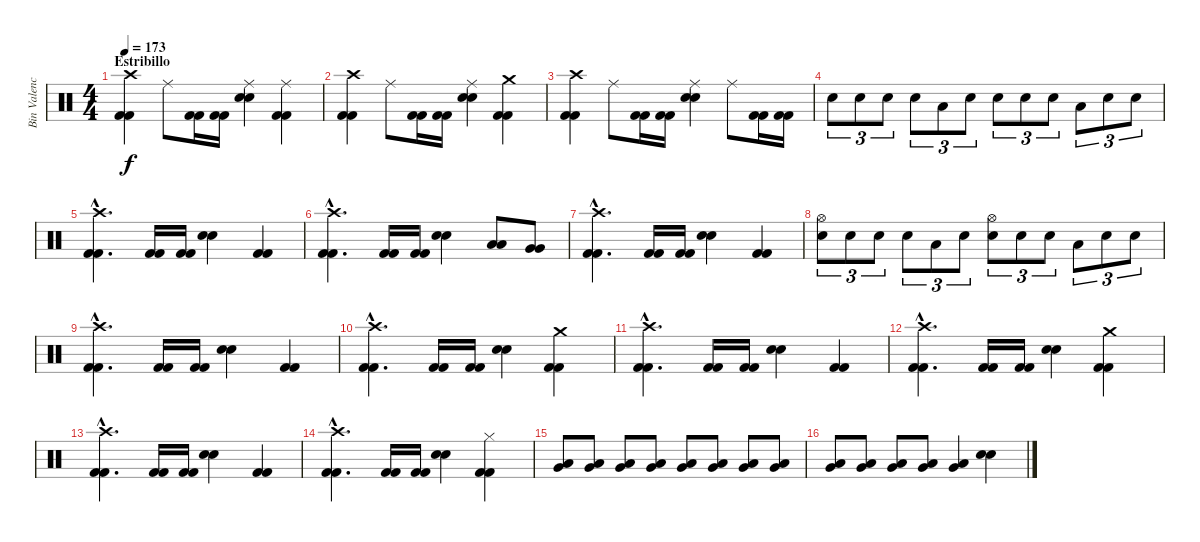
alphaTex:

\track ("Bin Valencia (Bateria)" "Bin Valenc") {instrument percussion}
\staff {score}
\articulation defaults
\ts (4 4)
\section ("" "Estribillo")
\tempo 173
\clef neutral
\ks c
("Crash high (hit)" "Kick (hit) 2" "Kick (hit) 2").4{dy f} "Ride (middle)".8 ("Kick (hit) 2" "Kick (hit) 2").16 ("Kick (hit) 2" "Kick (hit) 2").16 ("Ride (middle)" "Snare (hit) 2" "Snare (hit) 2").4 ("Ride (middle)" "Kick (hit) 2" "Kick (hit) 2").4 |
("Crash high (hit)" "Kick (hit) 2" "Kick (hit) 2").4 "Ride (middle)".8 ("Kick (hit) 2" "Kick (hit) 2").16 ("Kick (hit) 2" "Kick (hit) 2").16 ("Ride (middle)" "Snare (hit) 2" "Snare (hit) 2").4 ("Crash medium (hit)" "Kick (hit) 2" "Kick (hit) 2").4 |
("Crash high (hit)" "Kick (hit) 2" "Kick (hit) 2").4 "Ride (middle)".8 ("Kick (hit) 2" "Kick (hit) 2").16 ("Kick (hit) 2" "Kick (hit) 2").16 ("Ride (middle)" "Snare (hit) 2" "Snare (hit) 2").4 "Ride (middle)".8 ("Kick (hit) 2" "Kick (hit) 2").16 ("Kick (hit) 2" "Kick (hit) 2").16 |
"Snare (hit) 2".8{tu (3 2)} "Snare (hit) 2".8{tu (3 2)} "Snare (hit) 2".8{tu (3 2)} "Snare (hit) 2".8{tu (3 2)} "Low Tom (hit)".8{tu (3 2)} "Snare (hit) 2".8{tu (3 2)} "Snare (hit) 2".8{tu (3 2)} "Snare (hit) 2".8{tu (3 2)} "Snare (hit) 2".8{tu (3 2)} "Low Tom (hit)".8{tu (3 2)} "Snare (hit) 2".8{tu (3 2)} "Snare (hit) 2".8{tu (3 2)} |
("Crash high (hit)"{hac} "Kick (hit) 2"{hac} "Kick (hit) 2"{hac}).4{d} ("Kick (hit) 2" "Kick (hit) 2").16 ("Kick (hit) 2" "Kick (hit) 2").16 ("Snare (hit) 2" "Snare (hit) 2").4 ("Kick (hit) 2" "Kick (hit) 2").4 |
("Crash high (hit)"{hac} "Kick (hit) 2"{hac} "Kick (hit) 2"{hac}).4{d} ("Kick (hit) 2" "Kick (hit) 2").16 ("Kick (hit) 2" "Kick (hit) 2").16 ("Snare (hit) 2" "Snare (hit) 2").4 ("Low Tom (hit)" "Low Tom (hit)").8 ("Very Low Tom (hit)" "Very Low Tom (hit)").8 |
("Crash high (hit)"{hac} "Kick (hit) 2"{hac} "Kick (hit) 2"{hac}).4{d} ("Kick (hit) 2" "Kick (hit) 2").16 ("Kick (hit) 2" "Kick (hit) 2").16 ("Snare (hit) 2" "Snare (hit) 2").4 ("Kick (hit) 2" "Kick (hit) 2").4 |
("Hi-Hat (open)" "Snare (hit) 2").8{tu (3 2)} "Snare (hit) 2".8{tu (3 2)} "Snare (hit) 2".8{tu (3 2)} "Snare (hit) 2".8{tu (3 2)} "Low Tom (hit)".8{tu (3 2)} "Snare (hit) 2".8{tu (3 2)} ("Hi-Hat (open)" "Snare (hit) 2").8{tu (3 2)} "Snare (hit) 2".8{tu (3 2)} "Snare (hit) 2".8{tu (3 2)} "Low Tom (hit)".8{tu (3 2)} "Snare (hit) 2".8{tu (3 2)} "Snare (hit) 2".8{tu (3 2)} |
("Crash high (hit)"{hac} "Kick (hit) 2"{hac} "Kick (hit) 2"{hac}).4{d} ("Kick (hit) 2" "Kick (hit) 2").16 ("Kick (hit) 2" "Kick (hit) 2").16 ("Snare (hit) 2" "Snare (hit) 2").4 ("Kick (hit) 2" "Kick (hit) 2").4 |
("Crash high (hit)"{hac} "Kick (hit) 2"{hac} "Kick (hit) 2"{hac}).4{d} ("Kick (hit) 2" "Kick (hit) 2").16 ("Kick (hit) 2" "Kick (hit) 2").16 ("Snare (hit) 2" "Snare (hit) 2").4 ("Crash medium (hit)" "Kick (hit) 2" "Kick (hit) 2").4 |
("Crash high (hit)"{hac} "Kick (hit) 2"{hac} "Kick (hit) 2"{hac}).4{d} ("Kick (hit) 2" "Kick (hit) 2").16 ("Kick (hit) 2" "Kick (hit) 2").16 ("Snare (hit) 2" "Snare (hit) 2").4 ("Kick (hit) 2" "Kick (hit) 2").4 |
("Crash high (hit)"{hac} "Kick (hit) 2"{hac} "Kick (hit) 2"{hac}).4{d} ("Kick (hit) 2" "Kick (hit) 2").16 ("Kick (hit) 2" "Kick (hit) 2").16 ("Snare (hit) 2" "Snare (hit) 2").4 ("Crash medium (hit)" "Kick (hit) 2" "Kick (hit) 2").4 |
("Crash high (hit)"{hac} "Kick (hit) 2"{hac} "Kick (hit) 2"{hac}).4{d} ("Kick (hit) 2" "Kick (hit) 2").16 ("Kick (hit) 2" "Kick (hit) 2").16 ("Snare (hit) 2" "Snare (hit) 2").4 ("Kick (hit) 2" "Kick (hit) 2").4 |
("Crash high (hit)"{hac} "Kick (hit) 2"{hac} "Kick (hit) 2"{hac}).4{d} ("Kick (hit) 2" "Kick (hit) 2").16 ("Kick (hit) 2" "Kick (hit) 2").16 ("Snare (hit) 2" "Snare (hit) 2").4 ("Hi-Hat (closed)" "Kick (hit) 2" "Kick (hit) 2").4 |
("Very Low Tom (hit)" "Low Tom (hit)").8 ("Very Low Tom (hit)" "Low Tom (hit)").8 ("Very Low Tom (hit)" "Low Tom (hit)").8 ("Very Low Tom (hit)" "Low Tom (hit)").8 ("Very Low Tom (hit)" "Low Tom (hit)").8 ("Very Low Tom (hit)" "Low Tom (hit)").8 ("Very Low Tom (hit)" "Low Tom (hit)").8 ("Very Low Tom (hit)" "Low Tom (hit)").8 |
("Very Low Tom (hit)" "Low Tom (hit)").8 ("Very Low Tom (hit)" "Low Tom (hit)").8 ("Very Low Tom (hit)" "Low Tom (hit)").8 ("Very Low Tom (hit)" "Low Tom (hit)").8 ("Low Tom (hit)" "Very Low Tom (hit)").4 ("Snare (hit) 2" "Snare (hit) 2").4
